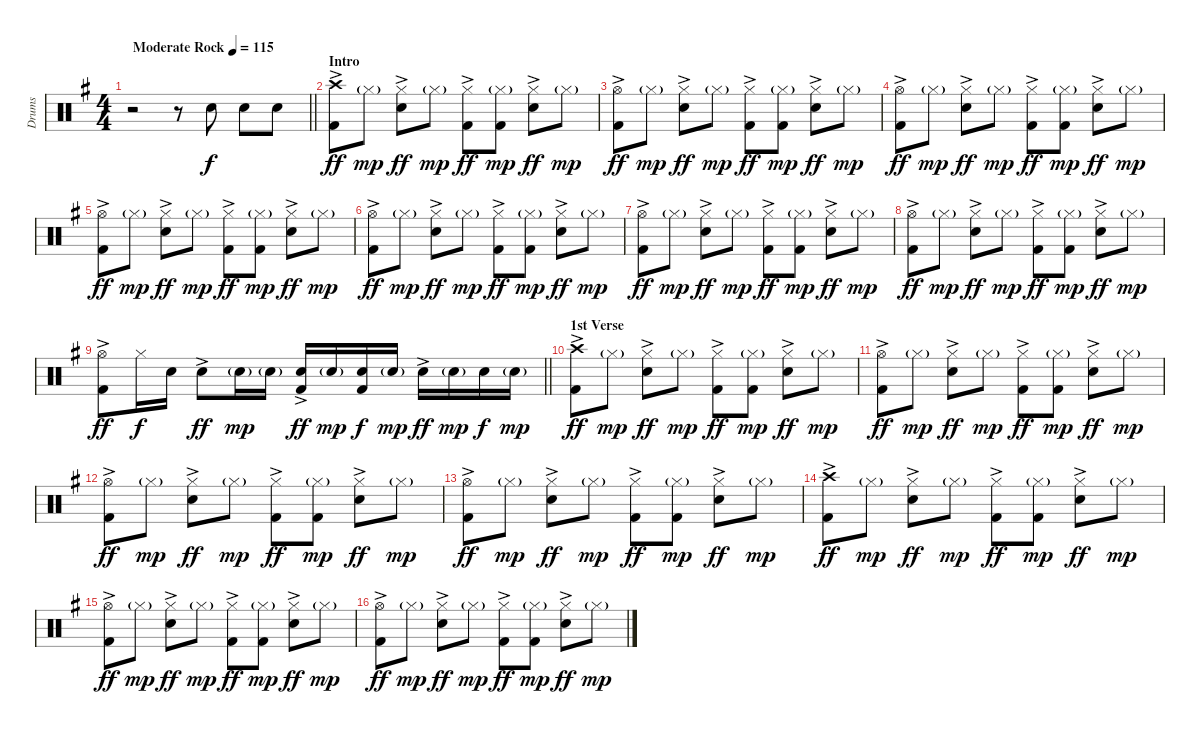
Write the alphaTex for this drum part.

\track ("Drums" "Drums") {instrument percussion}
\staff {score}
\articulation defaults
\ts (4 4)
\tempo (115 "Moderate Rock")
\clef neutral
\barLineRight lightlight
\ks g
r.2{dy f} r.8 "Snare (hit) 2".8 "Snare (hit) 2".8 "Snare (hit) 2".8 |
\section ("" "Intro")
("Crash high (hit)" "Kick (hit) 2"{ac}).8{dy ff} "Hi-Hat (closed)"{g}.8{dy mp} ("Hi-Hat (closed)" "Snare (hit) 2"{ac}).8{dy ff} "Hi-Hat (closed)"{g}.8{dy mp} ("Hi-Hat (closed)" "Kick (hit) 2"{ac}).8{dy ff} ("Hi-Hat (closed)"{g} "Kick (hit) 2").8{dy mp} ("Hi-Hat (closed)" "Snare (hit) 2"{ac}).8{dy ff} "Hi-Hat (closed)"{g}.8{dy mp} |
("Hi-Hat (open)" "Kick (hit) 2"{ac}).8{dy ff} "Hi-Hat (closed)"{g}.8{dy mp} ("Hi-Hat (closed)" "Snare (hit) 2"{ac}).8{dy ff} "Hi-Hat (closed)"{g}.8{dy mp} ("Hi-Hat (closed)" "Kick (hit) 2"{ac}).8{dy ff} ("Hi-Hat (closed)"{g} "Kick (hit) 2").8{dy mp} ("Hi-Hat (closed)" "Snare (hit) 2"{ac}).8{dy ff} "Hi-Hat (closed)"{g}.8{dy mp} |
("Hi-Hat (open)" "Kick (hit) 2"{ac}).8{dy ff} "Hi-Hat (closed)"{g}.8{dy mp} ("Hi-Hat (closed)" "Snare (hit) 2"{ac}).8{dy ff} "Hi-Hat (closed)"{g}.8{dy mp} ("Hi-Hat (closed)" "Kick (hit) 2"{ac}).8{dy ff} ("Hi-Hat (closed)"{g} "Kick (hit) 2").8{dy mp} ("Hi-Hat (closed)" "Snare (hit) 2"{ac}).8{dy ff} "Hi-Hat (closed)"{g}.8{dy mp} |
("Hi-Hat (open)" "Kick (hit) 2"{ac}).8{dy ff} "Hi-Hat (closed)"{g}.8{dy mp} ("Hi-Hat (closed)" "Snare (hit) 2"{ac}).8{dy ff} "Hi-Hat (closed)"{g}.8{dy mp} ("Hi-Hat (closed)" "Kick (hit) 2"{ac}).8{dy ff} ("Hi-Hat (closed)"{g} "Kick (hit) 2").8{dy mp} ("Hi-Hat (closed)" "Snare (hit) 2"{ac}).8{dy ff} "Hi-Hat (closed)"{g}.8{dy mp} |
("Hi-Hat (open)" "Kick (hit) 2"{ac}).8{dy ff} "Hi-Hat (closed)"{g}.8{dy mp} ("Hi-Hat (closed)" "Snare (hit) 2"{ac}).8{dy ff} "Hi-Hat (closed)"{g}.8{dy mp} ("Hi-Hat (closed)" "Kick (hit) 2"{ac}).8{dy ff} ("Hi-Hat (closed)"{g} "Kick (hit) 2").8{dy mp} ("Hi-Hat (closed)" "Snare (hit) 2"{ac}).8{dy ff} "Hi-Hat (closed)"{g}.8{dy mp} |
("Hi-Hat (open)" "Kick (hit) 2"{ac}).8{dy ff} "Hi-Hat (closed)"{g}.8{dy mp} ("Hi-Hat (closed)" "Snare (hit) 2"{ac}).8{dy ff} "Hi-Hat (closed)"{g}.8{dy mp} ("Hi-Hat (closed)" "Kick (hit) 2"{ac}).8{dy ff} ("Hi-Hat (closed)"{g} "Kick (hit) 2").8{dy mp} ("Hi-Hat (closed)" "Snare (hit) 2"{ac}).8{dy ff} "Hi-Hat (closed)"{g}.8{dy mp} |
("Hi-Hat (open)" "Kick (hit) 2"{ac}).8{dy ff} "Hi-Hat (closed)"{g}.8{dy mp} ("Hi-Hat (closed)" "Snare (hit) 2"{ac}).8{dy ff} "Hi-Hat (closed)"{g}.8{dy mp} ("Hi-Hat (closed)" "Kick (hit) 2"{ac}).8{dy ff} ("Hi-Hat (closed)"{g} "Kick (hit) 2").8{dy mp} ("Hi-Hat (closed)" "Snare (hit) 2"{ac}).8{dy ff} "Hi-Hat (closed)"{g}.8{dy mp} |
\barLineRight lightlight
("Hi-Hat (open)" "Kick (hit) 2"{ac}).8{dy ff} "Hi-Hat (closed)".16{dy f} "Snare (hit) 2".16 "Snare (hit) 2"{ac}.8{dy ff} "Snare (hit) 2"{g}.16{dy mp} "Snare (hit) 2"{g}.16 ("Snare (hit) 2" "Kick (hit) 2"{ac}).16{dy ff} "Snare (hit) 2"{g}.16{dy mp} ("Snare (hit) 2" "Kick (hit) 2").16{dy f} "Snare (hit) 2"{g}.16{dy mp} "Snare (hit) 2"{ac}.16{dy ff} "Snare (hit) 2"{g}.16{dy mp} "Snare (hit) 2".16{dy f} "Snare (hit) 2"{g}.16{dy mp} |
\section ("" "1st Verse")
("Crash high (hit)" "Kick (hit) 2"{ac}).8{dy ff} "Hi-Hat (closed)"{g}.8{dy mp} ("Hi-Hat (closed)" "Snare (hit) 2"{ac}).8{dy ff} "Hi-Hat (closed)"{g}.8{dy mp} ("Hi-Hat (closed)" "Kick (hit) 2"{ac}).8{dy ff} ("Hi-Hat (closed)"{g} "Kick (hit) 2").8{dy mp} ("Hi-Hat (closed)" "Snare (hit) 2"{ac}).8{dy ff} "Hi-Hat (closed)"{g}.8{dy mp} |
("Hi-Hat (open)" "Kick (hit) 2"{ac}).8{dy ff} "Hi-Hat (closed)"{g}.8{dy mp} ("Hi-Hat (closed)" "Snare (hit) 2"{ac}).8{dy ff} "Hi-Hat (closed)"{g}.8{dy mp} ("Hi-Hat (closed)" "Kick (hit) 2"{ac}).8{dy ff} ("Hi-Hat (closed)"{g} "Kick (hit) 2").8{dy mp} ("Hi-Hat (closed)" "Snare (hit) 2"{ac}).8{dy ff} "Hi-Hat (closed)"{g}.8{dy mp} |
("Hi-Hat (open)" "Kick (hit) 2"{ac}).8{dy ff} "Hi-Hat (closed)"{g}.8{dy mp} ("Hi-Hat (closed)" "Snare (hit) 2"{ac}).8{dy ff} "Hi-Hat (closed)"{g}.8{dy mp} ("Hi-Hat (closed)" "Kick (hit) 2"{ac}).8{dy ff} ("Hi-Hat (closed)"{g} "Kick (hit) 2").8{dy mp} ("Hi-Hat (closed)" "Snare (hit) 2"{ac}).8{dy ff} "Hi-Hat (closed)"{g}.8{dy mp} |
("Hi-Hat (open)" "Kick (hit) 2"{ac}).8{dy ff} "Hi-Hat (closed)"{g}.8{dy mp} ("Hi-Hat (closed)" "Snare (hit) 2"{ac}).8{dy ff} "Hi-Hat (closed)"{g}.8{dy mp} ("Hi-Hat (closed)" "Kick (hit) 2"{ac}).8{dy ff} ("Hi-Hat (closed)"{g} "Kick (hit) 2").8{dy mp} ("Hi-Hat (closed)" "Snare (hit) 2"{ac}).8{dy ff} "Hi-Hat (closed)"{g}.8{dy mp} |
("Crash high (hit)" "Kick (hit) 2"{ac}).8{dy ff} "Hi-Hat (closed)"{g}.8{dy mp} ("Hi-Hat (closed)" "Snare (hit) 2"{ac}).8{dy ff} "Hi-Hat (closed)"{g}.8{dy mp} ("Hi-Hat (closed)" "Kick (hit) 2"{ac}).8{dy ff} ("Hi-Hat (closed)"{g} "Kick (hit) 2").8{dy mp} ("Hi-Hat (closed)" "Snare (hit) 2"{ac}).8{dy ff} "Hi-Hat (closed)"{g}.8{dy mp} |
("Hi-Hat (open)" "Kick (hit) 2"{ac}).8{dy ff} "Hi-Hat (closed)"{g}.8{dy mp} ("Hi-Hat (closed)" "Snare (hit) 2"{ac}).8{dy ff} "Hi-Hat (closed)"{g}.8{dy mp} ("Hi-Hat (closed)" "Kick (hit) 2"{ac}).8{dy ff} ("Hi-Hat (closed)"{g} "Kick (hit) 2").8{dy mp} ("Hi-Hat (closed)" "Snare (hit) 2"{ac}).8{dy ff} "Hi-Hat (closed)"{g}.8{dy mp} |
("Hi-Hat (open)" "Kick (hit) 2"{ac}).8{dy ff} "Hi-Hat (closed)"{g}.8{dy mp} ("Hi-Hat (closed)" "Snare (hit) 2"{ac}).8{dy ff} "Hi-Hat (closed)"{g}.8{dy mp} ("Hi-Hat (closed)" "Kick (hit) 2"{ac}).8{dy ff} ("Hi-Hat (closed)"{g} "Kick (hit) 2").8{dy mp} ("Hi-Hat (closed)" "Snare (hit) 2"{ac}).8{dy ff} "Hi-Hat (closed)"{g}.8{dy mp}
